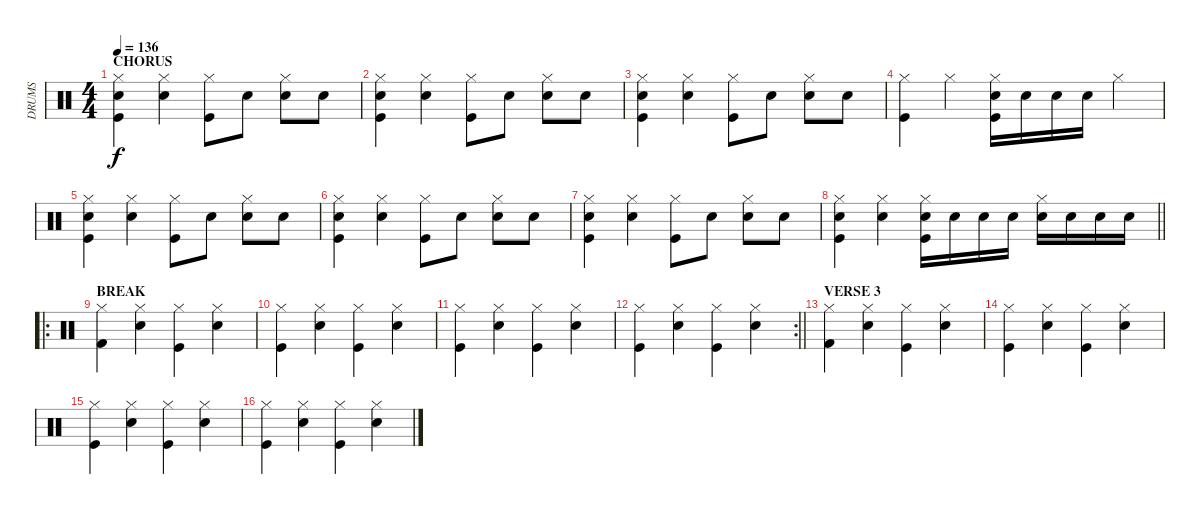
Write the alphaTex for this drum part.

\track ("DRUMS" "DRUMS") {instrument percussion}
\staff {score}
\articulation defaults
\ts (4 4)
\section ("" "CHORUS")
\tempo 136
\clef neutral
\ks c
("Hi-Hat (closed)" "Kick (hit)" "Snare (hit) 2").4{dy f} ("Hi-Hat (closed)" "Snare (hit) 2").4 ("Hi-Hat (closed)" "Kick (hit)").8 "Snare (hit) 2".8 ("Hi-Hat (closed)" "Snare (hit) 2").8 "Snare (hit) 2".8 |
("Hi-Hat (closed)" "Kick (hit)" "Snare (hit) 2").4 ("Hi-Hat (closed)" "Snare (hit) 2").4 ("Hi-Hat (closed)" "Kick (hit)").8 "Snare (hit) 2".8 ("Hi-Hat (closed)" "Snare (hit) 2").8 "Snare (hit) 2".8 |
("Hi-Hat (closed)" "Kick (hit)" "Snare (hit) 2").4 ("Hi-Hat (closed)" "Snare (hit) 2").4 ("Hi-Hat (closed)" "Kick (hit)").8 "Snare (hit) 2".8 ("Hi-Hat (closed)" "Snare (hit) 2").8 "Snare (hit) 2".8 |
("Hi-Hat (closed)" "Kick (hit)").4 "Hi-Hat (closed)".4 ("Hi-Hat (closed)" "Kick (hit)" "Snare (hit) 2").16 "Snare (hit) 2".16 "Snare (hit) 2".16 "Snare (hit) 2".16 "Hi-Hat (closed)".4 |
("Hi-Hat (closed)" "Kick (hit)" "Snare (hit) 2").4 ("Hi-Hat (closed)" "Snare (hit) 2").4 ("Hi-Hat (closed)" "Kick (hit)").8 "Snare (hit) 2".8 ("Hi-Hat (closed)" "Snare (hit) 2").8 "Snare (hit) 2".8 |
("Hi-Hat (closed)" "Kick (hit)" "Snare (hit) 2").4 ("Hi-Hat (closed)" "Snare (hit) 2").4 ("Hi-Hat (closed)" "Kick (hit)").8 "Snare (hit) 2".8 ("Hi-Hat (closed)" "Snare (hit) 2").8 "Snare (hit) 2".8 |
("Hi-Hat (closed)" "Kick (hit)" "Snare (hit) 2").4 ("Hi-Hat (closed)" "Snare (hit) 2").4 ("Hi-Hat (closed)" "Kick (hit)").8 "Snare (hit) 2".8 ("Hi-Hat (closed)" "Snare (hit) 2").8 "Snare (hit) 2".8 |
\barLineRight lightlight
("Hi-Hat (closed)" "Kick (hit)" "Snare (hit) 2").4 ("Hi-Hat (closed)" "Snare (hit) 2").4 ("Hi-Hat (closed)" "Kick (hit)" "Snare (hit) 2").16 "Snare (hit) 2".16 "Snare (hit) 2".16 "Snare (hit) 2".16 ("Hi-Hat (closed)" "Snare (hit) 2").16 "Snare (hit) 2".16 "Snare (hit) 2".16 "Snare (hit) 2".16 |
\ro
\section ("" "BREAK")
("Hi-Hat (closed)" "Kick (hit) 2").4 ("Hi-Hat (closed)" "Snare (hit) 2").4 ("Hi-Hat (closed)" "Kick (hit)").4 ("Hi-Hat (closed)" "Snare (hit) 2").4 |
("Hi-Hat (closed)" "Kick (hit)").4 ("Hi-Hat (closed)" "Snare (hit) 2").4 ("Hi-Hat (closed)" "Kick (hit)").4 ("Hi-Hat (closed)" "Snare (hit) 2").4 |
("Hi-Hat (closed)" "Kick (hit)").4 ("Hi-Hat (closed)" "Snare (hit) 2").4 ("Hi-Hat (closed)" "Kick (hit)").4 ("Hi-Hat (closed)" "Snare (hit) 2").4 |
\rc 2
\barLineRight lightlight
("Hi-Hat (closed)" "Kick (hit)").4 ("Hi-Hat (closed)" "Snare (hit) 2").4 ("Hi-Hat (closed)" "Kick (hit)").4 ("Hi-Hat (closed)" "Snare (hit) 2").4 |
\section ("" "VERSE 3")
("Hi-Hat (closed)" "Kick (hit) 2").4 ("Hi-Hat (closed)" "Snare (hit) 2").4 ("Hi-Hat (closed)" "Kick (hit)").4 ("Hi-Hat (closed)" "Snare (hit) 2").4 |
("Hi-Hat (closed)" "Kick (hit)").4 ("Hi-Hat (closed)" "Snare (hit) 2").4 ("Hi-Hat (closed)" "Kick (hit)").4 ("Hi-Hat (closed)" "Snare (hit) 2").4 |
("Hi-Hat (closed)" "Kick (hit)").4 ("Hi-Hat (closed)" "Snare (hit) 2").4 ("Hi-Hat (closed)" "Kick (hit)").4 ("Hi-Hat (closed)" "Snare (hit) 2").4 |
("Hi-Hat (closed)" "Kick (hit)").4 ("Hi-Hat (closed)" "Snare (hit) 2").4 ("Hi-Hat (closed)" "Kick (hit)").4 ("Hi-Hat (closed)" "Snare (hit) 2").4
